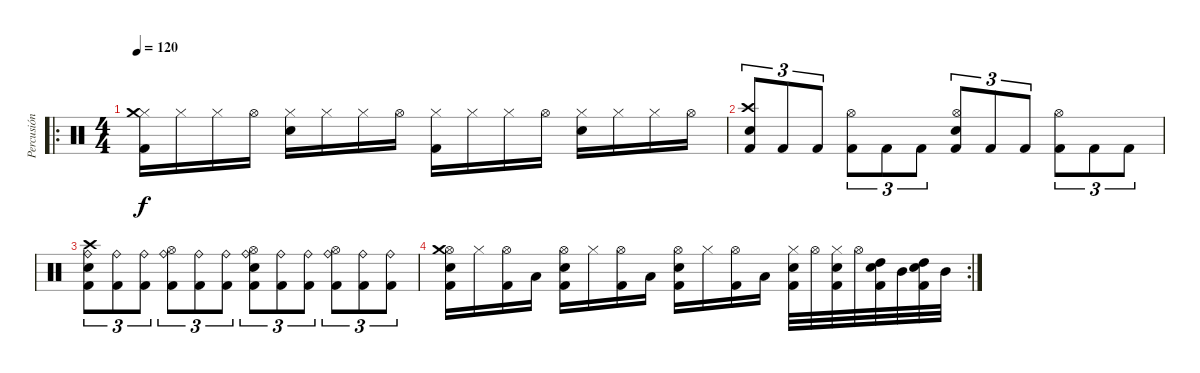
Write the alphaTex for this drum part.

\track ("Percusión" "Percusión") {instrument percussion}
\staff {score}
\articulation defaults
\ro
\ts (4 4)
\tempo 120
\clef neutral
\ks c
("Hi-Hat (closed)" "Crash medium (hit)" "Kick (hit) 2").16{dy f} "Hi-Hat (closed)".16 "Hi-Hat (closed)".16 "Hi-Hat (open)".16 ("Hi-Hat (closed)" "Snare (hit) 2").16 "Hi-Hat (closed)".16 "Hi-Hat (closed)".16 "Hi-Hat (open)".16 ("Hi-Hat (closed)" "Kick (hit) 2").16 "Hi-Hat (closed)".16 "Hi-Hat (closed)".16 "Hi-Hat (open)".16 ("Hi-Hat (closed)" "Snare (hit) 2").16 "Hi-Hat (closed)".16 "Hi-Hat (closed)".16 "Hi-Hat (open)".16 |
("Kick (hit) 2" "Crash high (hit)" "Electric Snare (hit)").8{tu (3 2)} "Kick (hit) 2".8{tu (3 2)} "Kick (hit) 2".8{tu (3 2)} ("Kick (hit) 2" "Hi-Hat (open)").8{tu (3 2)} "Kick (hit) 2".8{tu (3 2)} "Kick (hit) 2".8{tu (3 2)} ("Kick (hit) 2" "Hi-Hat (open)" "Electric Snare (hit)").8{tu (3 2)} "Kick (hit) 2".8{tu (3 2)} "Kick (hit) 2".8{tu (3 2)} ("Kick (hit) 2" "Hi-Hat (open)").8{tu (3 2)} "Kick (hit) 2".8{tu (3 2)} "Kick (hit) 2".8{tu (3 2)} |
("Kick (hit) 2" "Crash high (hit)" "Electric Snare (hit)" "Ride (bell)").8{tu (3 2)} ("Kick (hit) 2" "Ride (bell)").8{tu (3 2)} ("Kick (hit) 2" "Ride (bell)").8{tu (3 2)} ("Kick (hit) 2" "Hi-Hat (open)" "Ride (bell)").8{tu (3 2)} ("Kick (hit) 2" "Ride (bell)").8{tu (3 2)} ("Kick (hit) 2" "Ride (bell)").8{tu (3 2)} ("Kick (hit) 2" "Hi-Hat (open)" "Electric Snare (hit)" "Ride (bell)").8{tu (3 2)} ("Kick (hit) 2" "Ride (bell)").8{tu (3 2)} ("Kick (hit) 2" "Ride (bell)").8{tu (3 2)} ("Kick (hit) 2" "Hi-Hat (open)" "Ride (bell)").8{tu (3 2)} ("Kick (hit) 2" "Ride (bell)").8{tu (3 2)} ("Kick (hit) 2" "Ride (bell)").8{tu (3 2)} |
\rc 2
("Hi-Hat (open)" "Electric Snare (hit)" "Kick (hit) 2" "Crash medium (hit)").16 "Hi-Hat (closed)".16 ("Hi-Hat (open)" "Kick (hit) 2").16 "Low Tom (hit)".16 ("Hi-Hat (open)" "Snare (hit) 2" "Kick (hit) 2").16 "Hi-Hat (closed)".16 ("Hi-Hat (open)" "Kick (hit) 2").16 "Low Tom (hit)".16 ("Hi-Hat (open)" "Electric Snare (hit)" "Kick (hit) 2").16 "Hi-Hat (closed)".16 ("Hi-Hat (open)" "Kick (hit) 2").16 "Low Tom (hit)".16 ("Hi-Hat (closed)" "Snare (hit) 2" "Kick (hit) 2").32 "Hi-Hat (open)".32 ("Hi-Hat (closed)" "Snare (hit) 2" "Kick (hit) 2").32 "Hi-Hat (open)".32 ("High Tom (hit)" "Snare (hit) 2" "Kick (hit) 2").32 "Mid Tom (hit)".32 ("High Tom (hit)" "Snare (hit) 2" "Kick (hit) 2").32 "Mid Tom (hit)".32
